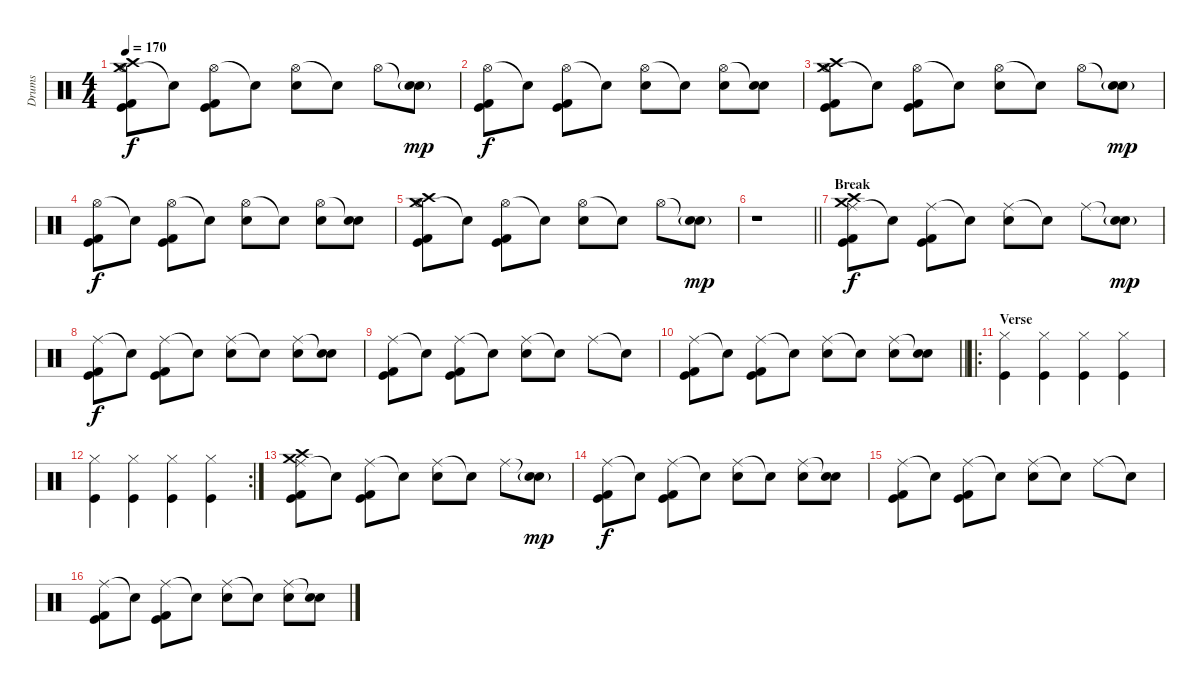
\track ("Drums" "Drums") {instrument percussion}
\staff {score}
\articulation defaults
\ts (4 4)
\tempo 170
\clef neutral
\ks c
("Hi-Hat (open)" "Crash high (hit)" "Crash medium (hit)" "Kick (hit)" "Kick (hit) 2").8{dy f} "Snare (hit)"{t}.8 ("Hi-Hat (open)" "Kick (hit)" "Kick (hit) 2").8 "Snare (hit)"{t}.8 ("Hi-Hat (open)" "Electric Snare (hit)").8 "Snare (hit)"{t}.8 "Hi-Hat (open)".8 ("Snare (hit)"{t} "Electric Snare (hit)"{g}).8{dy mp} |
("Hi-Hat (open)" "Kick (hit)" "Kick (hit) 2").8{dy f} "Snare (hit)"{t}.8 ("Hi-Hat (open)" "Kick (hit)" "Kick (hit) 2").8 "Snare (hit)"{t}.8 ("Hi-Hat (open)" "Electric Snare (hit)").8 "Snare (hit)"{t}.8 ("Hi-Hat (open)" "Electric Snare (hit)").8 ("Snare (hit)"{t} "Electric Snare (hit)").8 |
("Hi-Hat (open)" "Crash high (hit)" "Crash medium (hit)" "Kick (hit)" "Kick (hit) 2").8 "Snare (hit)"{t}.8 ("Hi-Hat (open)" "Kick (hit)" "Kick (hit) 2").8 "Snare (hit)"{t}.8 ("Hi-Hat (open)" "Electric Snare (hit)").8 "Snare (hit)"{t}.8 "Hi-Hat (open)".8 ("Snare (hit)"{t} "Electric Snare (hit)"{g}).8{dy mp} |
("Hi-Hat (open)" "Kick (hit)" "Kick (hit) 2").8{dy f} "Snare (hit)"{t}.8 ("Hi-Hat (open)" "Kick (hit)" "Kick (hit) 2").8 "Snare (hit)"{t}.8 ("Hi-Hat (open)" "Electric Snare (hit)").8 "Snare (hit)"{t}.8 ("Hi-Hat (open)" "Electric Snare (hit)").8 ("Snare (hit)"{t} "Electric Snare (hit)").8 |
("Hi-Hat (open)" "Crash high (hit)" "Crash medium (hit)" "Kick (hit)" "Kick (hit) 2").8 "Snare (hit)"{t}.8 ("Hi-Hat (open)" "Kick (hit)" "Kick (hit) 2").8 "Snare (hit)"{t}.8 ("Hi-Hat (open)" "Electric Snare (hit)").8 "Snare (hit)"{t}.8 "Hi-Hat (open)".8 ("Snare (hit)"{t} "Electric Snare (hit)"{g}).8{dy mp} |
\barLineRight lightlight
r.1 |
\section ("" "Break")
("Ride (middle)" "Crash high (hit)" "Crash medium (hit)" "Kick (hit)" "Kick (hit) 2").8{dy f} "Snare (hit)"{t}.8 ("Ride (middle)" "Kick (hit)" "Kick (hit) 2").8 "Snare (hit)"{t}.8 ("Ride (middle)" "Electric Snare (hit)").8 "Snare (hit)"{t}.8 "Ride (middle)".8 ("Snare (hit)"{t} "Electric Snare (hit)"{g}).8{dy mp} |
("Ride (middle)" "Kick (hit)" "Kick (hit) 2").8{dy f} "Snare (hit)"{t}.8 ("Ride (middle)" "Kick (hit)" "Kick (hit) 2").8 "Snare (hit)"{t}.8 ("Ride (middle)" "Electric Snare (hit)").8 "Snare (hit)"{t}.8 ("Ride (middle)" "Electric Snare (hit)").8 ("Snare (hit)"{t} "Electric Snare (hit)").8 |
("Ride (middle)" "Kick (hit)" "Kick (hit) 2").8 "Snare (hit)"{t}.8 ("Ride (middle)" "Kick (hit)" "Kick (hit) 2").8 "Snare (hit)"{t}.8 ("Ride (middle)" "Electric Snare (hit)").8 "Snare (hit)"{t}.8 "Ride (middle)".8 "Snare (hit)"{t}.8 |
\barLineRight lightlight
("Ride (middle)" "Kick (hit)" "Kick (hit) 2").8 "Snare (hit)"{t}.8 ("Ride (middle)" "Kick (hit)" "Kick (hit) 2").8 "Snare (hit)"{t}.8 ("Ride (middle)" "Electric Snare (hit)").8 "Snare (hit)"{t}.8 ("Ride (middle)" "Electric Snare (hit)").8 ("Snare (hit)"{t} "Electric Snare (hit)").8 |
\ro
\section ("" "Verse")
("Hi-Hat (closed)" "Kick (hit)").4 ("Hi-Hat (closed)" "Kick (hit)").4 ("Hi-Hat (closed)" "Kick (hit)").4 ("Hi-Hat (closed)" "Kick (hit)").4 |
\rc 2
("Hi-Hat (closed)" "Kick (hit)").4 ("Hi-Hat (closed)" "Kick (hit)").4 ("Hi-Hat (closed)" "Kick (hit)").4 ("Hi-Hat (closed)" "Kick (hit)").4 |
("Ride (middle)" "Crash high (hit)" "Crash medium (hit)" "Kick (hit)" "Kick (hit) 2").8 "Snare (hit)"{t}.8 ("Ride (middle)" "Kick (hit)" "Kick (hit) 2").8 "Snare (hit)"{t}.8 ("Ride (middle)" "Electric Snare (hit)").8 "Snare (hit)"{t}.8 "Ride (middle)".8 ("Snare (hit)"{t} "Electric Snare (hit)"{g}).8{dy mp} |
("Ride (middle)" "Kick (hit)" "Kick (hit) 2").8{dy f} "Snare (hit)"{t}.8 ("Ride (middle)" "Kick (hit)" "Kick (hit) 2").8 "Snare (hit)"{t}.8 ("Ride (middle)" "Electric Snare (hit)").8 "Snare (hit)"{t}.8 ("Ride (middle)" "Electric Snare (hit)").8 ("Snare (hit)"{t} "Electric Snare (hit)").8 |
("Ride (middle)" "Kick (hit)" "Kick (hit) 2").8 "Snare (hit)"{t}.8 ("Ride (middle)" "Kick (hit)" "Kick (hit) 2").8 "Snare (hit)"{t}.8 ("Ride (middle)" "Electric Snare (hit)").8 "Snare (hit)"{t}.8 "Ride (middle)".8 "Snare (hit)"{t}.8 |
("Ride (middle)" "Kick (hit)" "Kick (hit) 2").8 "Snare (hit)"{t}.8 ("Ride (middle)" "Kick (hit)" "Kick (hit) 2").8 "Snare (hit)"{t}.8 ("Ride (middle)" "Electric Snare (hit)").8 "Snare (hit)"{t}.8 ("Ride (middle)" "Electric Snare (hit)").8 ("Snare (hit)"{t} "Electric Snare (hit)").8
